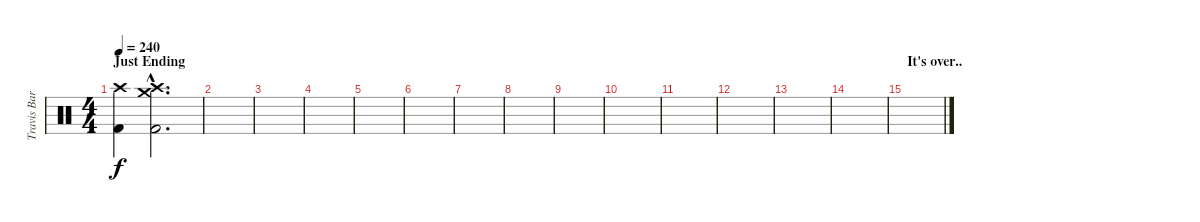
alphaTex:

\track ("Travis Barker - Drums" "Travis Bar") {instrument percussion}
\staff {score}
\articulation defaults
\ts (4 4)
\section ("" "Just Ending")
\tempo 240
\clef neutral
\ks c
("Crash high (hit)" "Kick (hit) 2").4{dy f} ("Crash medium (hit)"{hac} "Crash high (hit)"{hac} "Kick (hit) 2"{hac}).2{d} |
|
|
|
|
|
|
|
|
|
|
|
|
|
\section ("" "It's over..")
